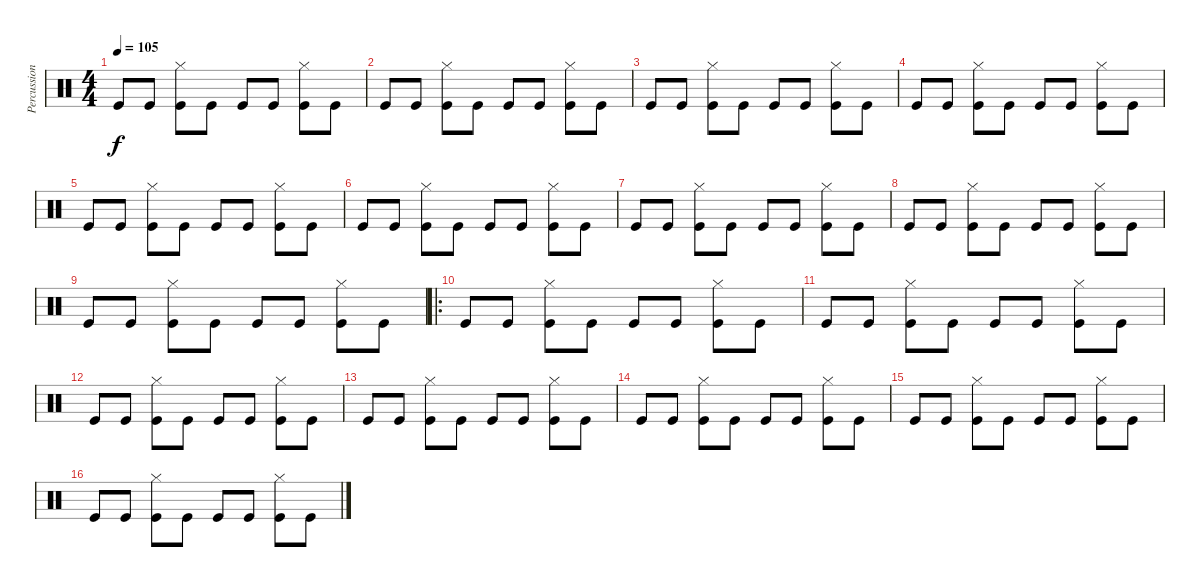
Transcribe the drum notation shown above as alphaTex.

\track ("Percussion" "Percussion") {instrument percussion}
\staff {score}
\articulation defaults
\ts (4 4)
\tempo 105
\clef neutral
\ks c "Kick (hit)".8{dy f} "Kick (hit)".8
("Hi-Hat (closed)" "Kick (hit)").8 "Kick (hit)".8 "Kick (hit)".8 "Kick (hit)".8 ("Hi-Hat (closed)" "Kick (hit)").8 "Kick (hit)".8 |
"Kick (hit)".8 "Kick (hit)".8 ("Hi-Hat (closed)" "Kick (hit)").8 "Kick (hit)".8 "Kick (hit)".8 "Kick (hit)".8 ("Hi-Hat (closed)" "Kick (hit)").8 "Kick (hit)".8 |
"Kick (hit)".8 "Kick (hit)".8 ("Hi-Hat (closed)" "Kick (hit)").8 "Kick (hit)".8 "Kick (hit)".8 "Kick (hit)".8 ("Hi-Hat (closed)" "Kick (hit)").8 "Kick (hit)".8 |
"Kick (hit)".8 "Kick (hit)".8 ("Hi-Hat (closed)" "Kick (hit)").8 "Kick (hit)".8 "Kick (hit)".8 "Kick (hit)".8 ("Hi-Hat (closed)" "Kick (hit)").8 "Kick (hit)".8 |
"Kick (hit)".8 "Kick (hit)".8 ("Hi-Hat (closed)" "Kick (hit)").8 "Kick (hit)".8 "Kick (hit)".8 "Kick (hit)".8 ("Hi-Hat (closed)" "Kick (hit)").8 "Kick (hit)".8 |
"Kick (hit)".8 "Kick (hit)".8 ("Hi-Hat (closed)" "Kick (hit)").8 "Kick (hit)".8 "Kick (hit)".8 "Kick (hit)".8 ("Hi-Hat (closed)" "Kick (hit)").8 "Kick (hit)".8 |
"Kick (hit)".8 "Kick (hit)".8 ("Hi-Hat (closed)" "Kick (hit)").8 "Kick (hit)".8 "Kick (hit)".8 "Kick (hit)".8 ("Hi-Hat (closed)" "Kick (hit)").8 "Kick (hit)".8 |
"Kick (hit)".8 "Kick (hit)".8 ("Hi-Hat (closed)" "Kick (hit)").8 "Kick (hit)".8 "Kick (hit)".8 "Kick (hit)".8 ("Hi-Hat (closed)" "Kick (hit)").8 "Kick (hit)".8 |
"Kick (hit)".8 "Kick (hit)".8 ("Hi-Hat (closed)" "Kick (hit)").8 "Kick (hit)".8 "Kick (hit)".8 "Kick (hit)".8 ("Hi-Hat (closed)" "Kick (hit)").8 "Kick (hit)".8 |
\ro "Kick (hit)".8 "Kick (hit)".8
("Hi-Hat (closed)" "Kick (hit)").8 "Kick (hit)".8 "Kick (hit)".8 "Kick (hit)".8 ("Hi-Hat (closed)" "Kick (hit)").8 "Kick (hit)".8 |
"Kick (hit)".8 "Kick (hit)".8 ("Hi-Hat (closed)" "Kick (hit)").8 "Kick (hit)".8 "Kick (hit)".8 "Kick (hit)".8 ("Hi-Hat (closed)" "Kick (hit)").8 "Kick (hit)".8 |
"Kick (hit)".8 "Kick (hit)".8 ("Hi-Hat (closed)" "Kick (hit)").8 "Kick (hit)".8 "Kick (hit)".8 "Kick (hit)".8 ("Hi-Hat (closed)" "Kick (hit)").8 "Kick (hit)".8 |
"Kick (hit)".8 "Kick (hit)".8 ("Hi-Hat (closed)" "Kick (hit)").8 "Kick (hit)".8 "Kick (hit)".8 "Kick (hit)".8 ("Hi-Hat (closed)" "Kick (hit)").8 "Kick (hit)".8 |
"Kick (hit)".8 "Kick (hit)".8 ("Hi-Hat (closed)" "Kick (hit)").8 "Kick (hit)".8 "Kick (hit)".8 "Kick (hit)".8 ("Hi-Hat (closed)" "Kick (hit)").8 "Kick (hit)".8 |
"Kick (hit)".8 "Kick (hit)".8 ("Hi-Hat (closed)" "Kick (hit)").8 "Kick (hit)".8 "Kick (hit)".8 "Kick (hit)".8 ("Hi-Hat (closed)" "Kick (hit)").8 "Kick (hit)".8 |
"Kick (hit)".8 "Kick (hit)".8 ("Hi-Hat (closed)" "Kick (hit)").8 "Kick (hit)".8 "Kick (hit)".8 "Kick (hit)".8 ("Hi-Hat (closed)" "Kick (hit)").8 "Kick (hit)".8
